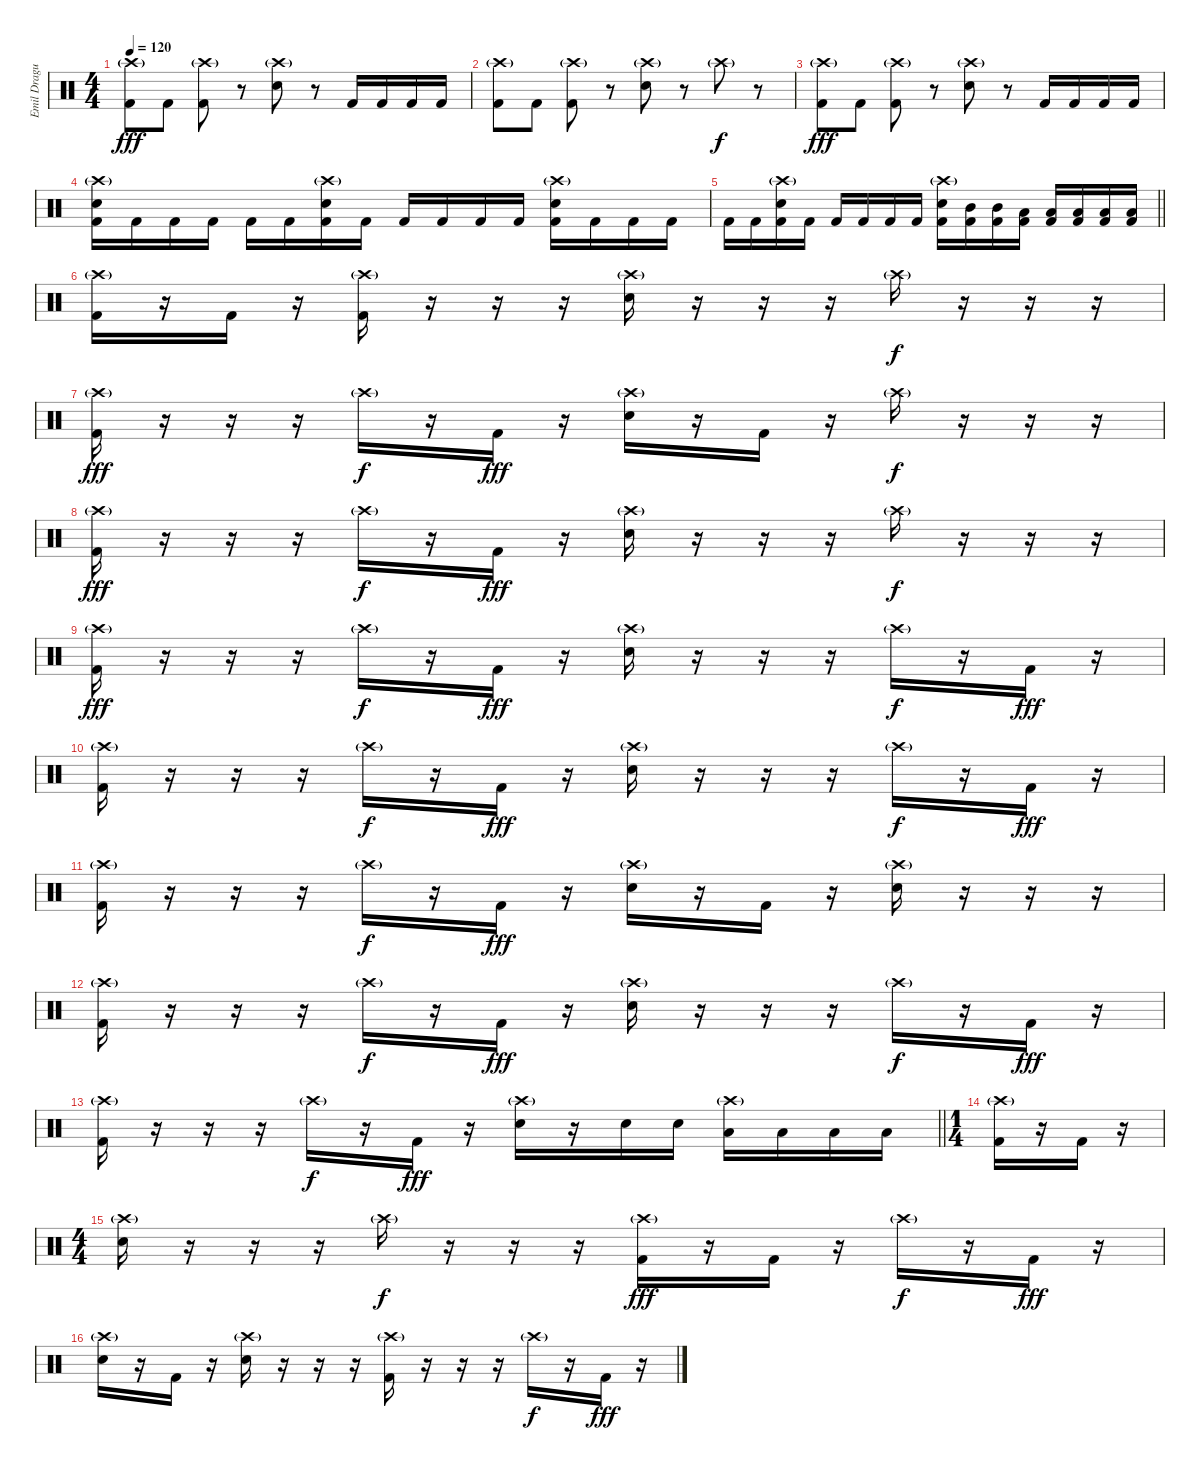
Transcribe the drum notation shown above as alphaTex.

\track ("Emil Dragutinovic" "Emil Dragu") {instrument percussion}
\staff {score}
\articulation defaults
\ts (4 4)
\tempo 120
\clef neutral
\ks c
("Crash high (hit)"{g} "Kick (hit) 2").8{dy fff} "Kick (hit) 2".8 ("Crash high (hit)"{g} "Kick (hit) 2").8 r.8 ("Crash high (hit)"{g} "Electric Snare (hit)").8 r.8 "Kick (hit) 2".16 "Kick (hit) 2".16 "Kick (hit) 2".16 "Kick (hit) 2".16 |
("Crash high (hit)"{g} "Kick (hit) 2").8 "Kick (hit) 2".8 ("Crash high (hit)"{g} "Kick (hit) 2").8 r.8 ("Crash high (hit)"{g} "Electric Snare (hit)").8 r.8 "Crash high (hit)"{g}.8{dy f} r.8 |
("Crash high (hit)"{g} "Kick (hit) 2").8{dy fff} "Kick (hit) 2".8 ("Crash high (hit)"{g} "Kick (hit) 2").8 r.8 ("Crash high (hit)"{g} "Electric Snare (hit)").8 r.8 "Kick (hit) 2".16 "Kick (hit) 2".16 "Kick (hit) 2".16 "Kick (hit) 2".16 |
("Crash high (hit)"{g} "Electric Snare (hit)" "Kick (hit) 2").16 "Kick (hit) 2".16 "Kick (hit) 2".16 "Kick (hit) 2".16 "Kick (hit) 2".16 "Kick (hit) 2".16 ("Crash high (hit)"{g} "Electric Snare (hit)" "Kick (hit) 2").16 "Kick (hit) 2".16 "Kick (hit) 2".16 "Kick (hit) 2".16 "Kick (hit) 2".16 "Kick (hit) 2".16 ("Crash high (hit)"{g} "Electric Snare (hit)" "Kick (hit) 2").16 "Kick (hit) 2".16 "Kick (hit) 2".16 "Kick (hit) 2".16 |
\barLineRight lightlight "Kick (hit) 2".16 "Kick (hit) 2".16
("Crash high (hit)"{g} "Electric Snare (hit)" "Kick (hit) 2").16 "Kick (hit) 2".16 "Kick (hit) 2".16 "Kick (hit) 2".16 "Kick (hit) 2".16 "Kick (hit) 2".16 ("Crash high (hit)"{g} "Electric Snare (hit)" "Kick (hit) 2").16 ("Mid Tom (hit)" "Kick (hit) 2").16 ("Mid Tom (hit)" "Kick (hit) 2").16 ("Low Tom (hit)" "Kick (hit) 2").16 ("Low Tom (hit)" "Kick (hit) 2").16 ("Low Floor Tom (hit)" "Kick (hit) 2").16 ("Low Floor Tom (hit)" "Kick (hit) 2").16 ("Low Floor Tom (hit)" "Kick (hit) 2").16 |
("Crash high (hit)"{g} "Kick (hit) 2").16 r.16 "Kick (hit) 2".16 r.16 ("Crash high (hit)"{g} "Kick (hit) 2").16 r.16 r.16 r.16 ("Crash high (hit)"{g} "Electric Snare (hit)").16 r.16 r.16 r.16 "Crash high (hit)"{g}.16{dy f} r.16 r.16 r.16 |
("Crash high (hit)"{g} "Kick (hit) 2").16{dy fff} r.16 r.16 r.16 "Crash high (hit)"{g}.16{dy f} r.16 "Kick (hit) 2".16{dy fff} r.16 ("Crash high (hit)"{g} "Electric Snare (hit)").16 r.16 "Kick (hit) 2".16 r.16 "Crash high (hit)"{g}.16{dy f} r.16 r.16 r.16 |
("Crash high (hit)"{g} "Kick (hit) 2").16{dy fff} r.16 r.16 r.16 "Crash high (hit)"{g}.16{dy f} r.16 "Kick (hit) 2".16{dy fff} r.16 ("Crash high (hit)"{g} "Electric Snare (hit)").16 r.16 r.16 r.16 "Crash high (hit)"{g}.16{dy f} r.16 r.16 r.16 |
("Crash high (hit)"{g} "Kick (hit) 2").16{dy fff} r.16 r.16 r.16 "Crash high (hit)"{g}.16{dy f} r.16 "Kick (hit) 2".16{dy fff} r.16 ("Crash high (hit)"{g} "Electric Snare (hit)").16 r.16 r.16 r.16 "Crash high (hit)"{g}.16{dy f} r.16 "Kick (hit) 2".16{dy fff} r.16 |
("Crash high (hit)"{g} "Kick (hit) 2").16 r.16 r.16 r.16 "Crash high (hit)"{g}.16{dy f} r.16 "Kick (hit) 2".16{dy fff} r.16 ("Crash high (hit)"{g} "Electric Snare (hit)").16 r.16 r.16 r.16 "Crash high (hit)"{g}.16{dy f} r.16 "Kick (hit) 2".16{dy fff} r.16 |
("Crash high (hit)"{g} "Kick (hit) 2").16 r.16 r.16 r.16 "Crash high (hit)"{g}.16{dy f} r.16 "Kick (hit) 2".16{dy fff} r.16 ("Crash high (hit)"{g} "Electric Snare (hit)").16 r.16 "Kick (hit) 2".16 r.16 ("Crash high (hit)"{g} "Electric Snare (hit)").16 r.16 r.16 r.16 |
("Crash high (hit)"{g} "Kick (hit) 2").16 r.16 r.16 r.16 "Crash high (hit)"{g}.16{dy f} r.16 "Kick (hit) 2".16{dy fff} r.16 ("Crash high (hit)"{g} "Electric Snare (hit)").16 r.16 r.16 r.16 "Crash high (hit)"{g}.16{dy f} r.16 "Kick (hit) 2".16{dy fff} r.16 |
\barLineRight lightlight
("Crash high (hit)"{g} "Kick (hit) 2").16 r.16 r.16 r.16 "Crash high (hit)"{g}.16{dy f} r.16 "Kick (hit) 2".16{dy fff} r.16 ("Crash high (hit)"{g} "Electric Snare (hit)").16 r.16 "Electric Snare (hit)".16 "Electric Snare (hit)".16 ("Crash high (hit)"{g} "Low Tom (hit)").16 "Low Tom (hit)".16 "Low Floor Tom (hit)".16 "Low Floor Tom (hit)".16 |
\ts (1 4)
("Crash high (hit)"{g} "Kick (hit) 2").16 r.16 "Kick (hit) 2".16 r.16 |
\ts (4 4)
("Crash high (hit)"{g} "Electric Snare (hit)").16 r.16 r.16 r.16 "Crash high (hit)"{g}.16{dy f} r.16 r.16 r.16 ("Crash high (hit)"{g} "Kick (hit) 2").16{dy fff} r.16 "Kick (hit) 2".16 r.16 "Crash high (hit)"{g}.16{dy f} r.16 "Kick (hit) 2".16{dy fff} r.16 |
("Crash high (hit)"{g} "Electric Snare (hit)").16 r.16 "Kick (hit) 2".16 r.16 ("Crash high (hit)"{g} "Electric Snare (hit)").16 r.16 r.16 r.16 ("Crash high (hit)"{g} "Kick (hit) 2").16 r.16 r.16 r.16 "Crash high (hit)"{g}.16{dy f} r.16 "Kick (hit) 2".16{dy fff} r.16
